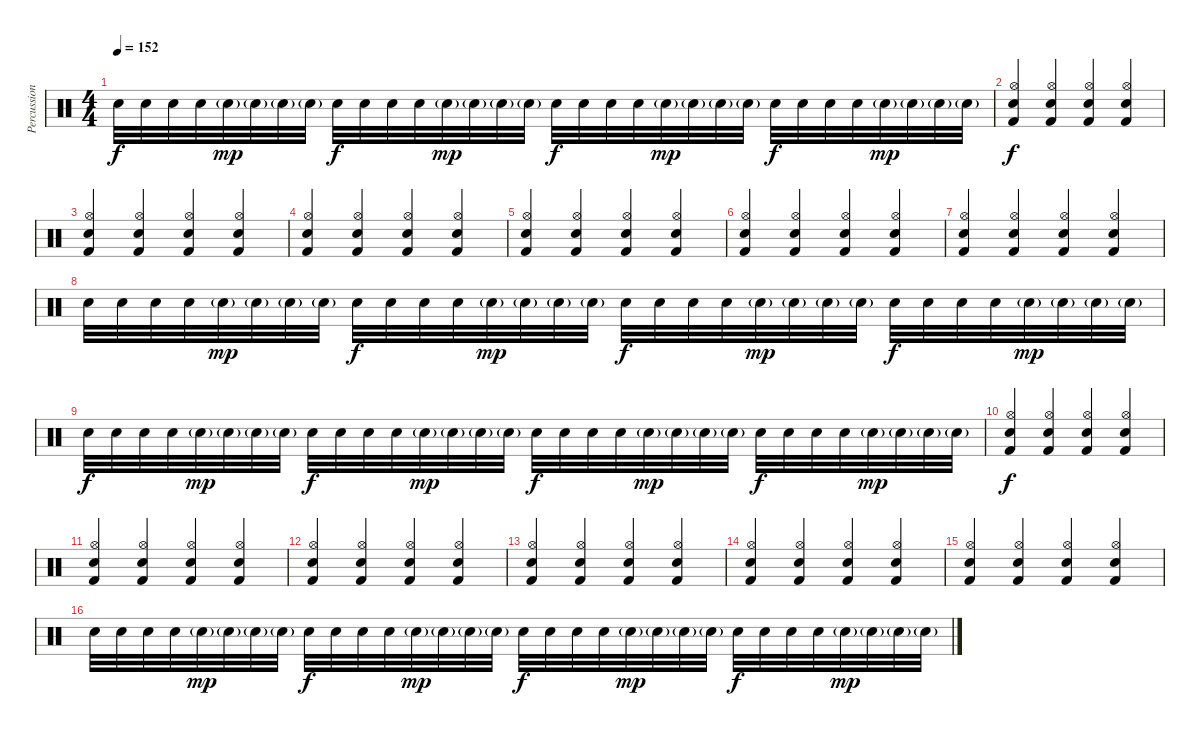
\track ("Percussion" "Percussion") {instrument percussion}
\staff {score}
\articulation defaults
\ts (4 4)
\tempo 152
\clef neutral
\ks c "Snare (hit) 2".32{dy f} "Snare (hit) 2".32 "Snare (hit) 2".32 "Snare (hit) 2".32 "Snare (hit) 2"{g}.32{dy mp} "Snare (hit) 2"{g}.32 "Snare (hit) 2"{g}.32 "Snare (hit) 2"{g}.32 "Snare (hit) 2".32{dy f} "Snare (hit) 2".32 "Snare (hit) 2".32 "Snare (hit) 2".32 "Snare (hit) 2"{g}.32{dy mp} "Snare (hit) 2"{g}.32 "Snare (hit) 2"{g}.32 "Snare (hit) 2"{g}.32 "Snare (hit) 2".32{dy f} "Snare (hit) 2".32 "Snare (hit) 2".32 "Snare (hit) 2".32 "Snare (hit) 2"{g}.32{dy mp} "Snare (hit) 2"{g}.32 "Snare (hit) 2"{g}.32 "Snare (hit) 2"{g}.32 "Snare (hit) 2".32{dy f} "Snare (hit) 2".32 "Snare (hit) 2".32 "Snare (hit) 2".32 "Snare (hit) 2"{g}.32{dy mp} "Snare (hit) 2"{g}.32 "Snare (hit) 2"{g}.32 "Snare (hit) 2"{g}.32
|
("Hi-Hat (open)" "Snare (hit) 2" "Kick (hit) 2").4{dy f} ("Hi-Hat (open)" "Snare (hit) 2" "Kick (hit) 2").4 ("Hi-Hat (open)" "Snare (hit) 2" "Kick (hit) 2").4 ("Hi-Hat (open)" "Snare (hit) 2" "Kick (hit) 2").4 |
("Hi-Hat (open)" "Snare (hit) 2" "Kick (hit) 2").4 ("Hi-Hat (open)" "Snare (hit) 2" "Kick (hit) 2").4 ("Hi-Hat (open)" "Snare (hit) 2" "Kick (hit) 2").4 ("Hi-Hat (open)" "Snare (hit) 2" "Kick (hit) 2").4 |
("Hi-Hat (open)" "Snare (hit) 2" "Kick (hit) 2").4 ("Hi-Hat (open)" "Snare (hit) 2" "Kick (hit) 2").4 ("Hi-Hat (open)" "Snare (hit) 2" "Kick (hit) 2").4 ("Hi-Hat (open)" "Snare (hit) 2" "Kick (hit) 2").4 |
("Hi-Hat (open)" "Snare (hit) 2" "Kick (hit) 2").4 ("Hi-Hat (open)" "Snare (hit) 2" "Kick (hit) 2").4 ("Hi-Hat (open)" "Snare (hit) 2" "Kick (hit) 2").4 ("Hi-Hat (open)" "Snare (hit) 2" "Kick (hit) 2").4 |
("Hi-Hat (open)" "Snare (hit) 2" "Kick (hit) 2").4 ("Hi-Hat (open)" "Snare (hit) 2" "Kick (hit) 2").4 ("Hi-Hat (open)" "Snare (hit) 2" "Kick (hit) 2").4 ("Hi-Hat (open)" "Snare (hit) 2" "Kick (hit) 2").4 |
("Hi-Hat (open)" "Snare (hit) 2" "Kick (hit) 2").4 ("Hi-Hat (open)" "Snare (hit) 2" "Kick (hit) 2").4 ("Hi-Hat (open)" "Snare (hit) 2" "Kick (hit) 2").4 ("Hi-Hat (open)" "Snare (hit) 2" "Kick (hit) 2").4 |
"Snare (hit) 2".32 "Snare (hit) 2".32 "Snare (hit) 2".32 "Snare (hit) 2".32 "Snare (hit) 2"{g}.32{dy mp} "Snare (hit) 2"{g}.32 "Snare (hit) 2"{g}.32 "Snare (hit) 2"{g}.32 "Snare (hit) 2".32{dy f} "Snare (hit) 2".32 "Snare (hit) 2".32 "Snare (hit) 2".32 "Snare (hit) 2"{g}.32{dy mp} "Snare (hit) 2"{g}.32 "Snare (hit) 2"{g}.32 "Snare (hit) 2"{g}.32 "Snare (hit) 2".32{dy f} "Snare (hit) 2".32 "Snare (hit) 2".32 "Snare (hit) 2".32 "Snare (hit) 2"{g}.32{dy mp} "Snare (hit) 2"{g}.32 "Snare (hit) 2"{g}.32 "Snare (hit) 2"{g}.32 "Snare (hit) 2".32{dy f} "Snare (hit) 2".32 "Snare (hit) 2".32 "Snare (hit) 2".32 "Snare (hit) 2"{g}.32{dy mp} "Snare (hit) 2"{g}.32 "Snare (hit) 2"{g}.32 "Snare (hit) 2"{g}.32 |
"Snare (hit) 2".32{dy f} "Snare (hit) 2".32 "Snare (hit) 2".32 "Snare (hit) 2".32 "Snare (hit) 2"{g}.32{dy mp} "Snare (hit) 2"{g}.32 "Snare (hit) 2"{g}.32 "Snare (hit) 2"{g}.32 "Snare (hit) 2".32{dy f} "Snare (hit) 2".32 "Snare (hit) 2".32 "Snare (hit) 2".32 "Snare (hit) 2"{g}.32{dy mp} "Snare (hit) 2"{g}.32 "Snare (hit) 2"{g}.32 "Snare (hit) 2"{g}.32 "Snare (hit) 2".32{dy f} "Snare (hit) 2".32 "Snare (hit) 2".32 "Snare (hit) 2".32 "Snare (hit) 2"{g}.32{dy mp} "Snare (hit) 2"{g}.32 "Snare (hit) 2"{g}.32 "Snare (hit) 2"{g}.32 "Snare (hit) 2".32{dy f} "Snare (hit) 2".32 "Snare (hit) 2".32 "Snare (hit) 2".32 "Snare (hit) 2"{g}.32{dy mp} "Snare (hit) 2"{g}.32 "Snare (hit) 2"{g}.32 "Snare (hit) 2"{g}.32 |
("Hi-Hat (open)" "Snare (hit) 2" "Kick (hit) 2").4{dy f} ("Hi-Hat (open)" "Snare (hit) 2" "Kick (hit) 2").4 ("Hi-Hat (open)" "Snare (hit) 2" "Kick (hit) 2").4 ("Hi-Hat (open)" "Snare (hit) 2" "Kick (hit) 2").4 |
("Hi-Hat (open)" "Snare (hit) 2" "Kick (hit) 2").4 ("Hi-Hat (open)" "Snare (hit) 2" "Kick (hit) 2").4 ("Hi-Hat (open)" "Snare (hit) 2" "Kick (hit) 2").4 ("Hi-Hat (open)" "Snare (hit) 2" "Kick (hit) 2").4 |
("Hi-Hat (open)" "Snare (hit) 2" "Kick (hit) 2").4 ("Hi-Hat (open)" "Snare (hit) 2" "Kick (hit) 2").4 ("Hi-Hat (open)" "Snare (hit) 2" "Kick (hit) 2").4 ("Hi-Hat (open)" "Snare (hit) 2" "Kick (hit) 2").4 |
("Hi-Hat (open)" "Snare (hit) 2" "Kick (hit) 2").4 ("Hi-Hat (open)" "Snare (hit) 2" "Kick (hit) 2").4 ("Hi-Hat (open)" "Snare (hit) 2" "Kick (hit) 2").4 ("Hi-Hat (open)" "Snare (hit) 2" "Kick (hit) 2").4 |
("Hi-Hat (open)" "Snare (hit) 2" "Kick (hit) 2").4 ("Hi-Hat (open)" "Snare (hit) 2" "Kick (hit) 2").4 ("Hi-Hat (open)" "Snare (hit) 2" "Kick (hit) 2").4 ("Hi-Hat (open)" "Snare (hit) 2" "Kick (hit) 2").4 |
("Hi-Hat (open)" "Snare (hit) 2" "Kick (hit) 2").4 ("Hi-Hat (open)" "Snare (hit) 2" "Kick (hit) 2").4 ("Hi-Hat (open)" "Snare (hit) 2" "Kick (hit) 2").4 ("Hi-Hat (open)" "Snare (hit) 2" "Kick (hit) 2").4 |
"Snare (hit) 2".32 "Snare (hit) 2".32 "Snare (hit) 2".32 "Snare (hit) 2".32 "Snare (hit) 2"{g}.32{dy mp} "Snare (hit) 2"{g}.32 "Snare (hit) 2"{g}.32 "Snare (hit) 2"{g}.32 "Snare (hit) 2".32{dy f} "Snare (hit) 2".32 "Snare (hit) 2".32 "Snare (hit) 2".32 "Snare (hit) 2"{g}.32{dy mp} "Snare (hit) 2"{g}.32 "Snare (hit) 2"{g}.32 "Snare (hit) 2"{g}.32 "Snare (hit) 2".32{dy f} "Snare (hit) 2".32 "Snare (hit) 2".32 "Snare (hit) 2".32 "Snare (hit) 2"{g}.32{dy mp} "Snare (hit) 2"{g}.32 "Snare (hit) 2"{g}.32 "Snare (hit) 2"{g}.32 "Snare (hit) 2".32{dy f} "Snare (hit) 2".32 "Snare (hit) 2".32 "Snare (hit) 2".32 "Snare (hit) 2"{g}.32{dy mp} "Snare (hit) 2"{g}.32 "Snare (hit) 2"{g}.32 "Snare (hit) 2"{g}.32
